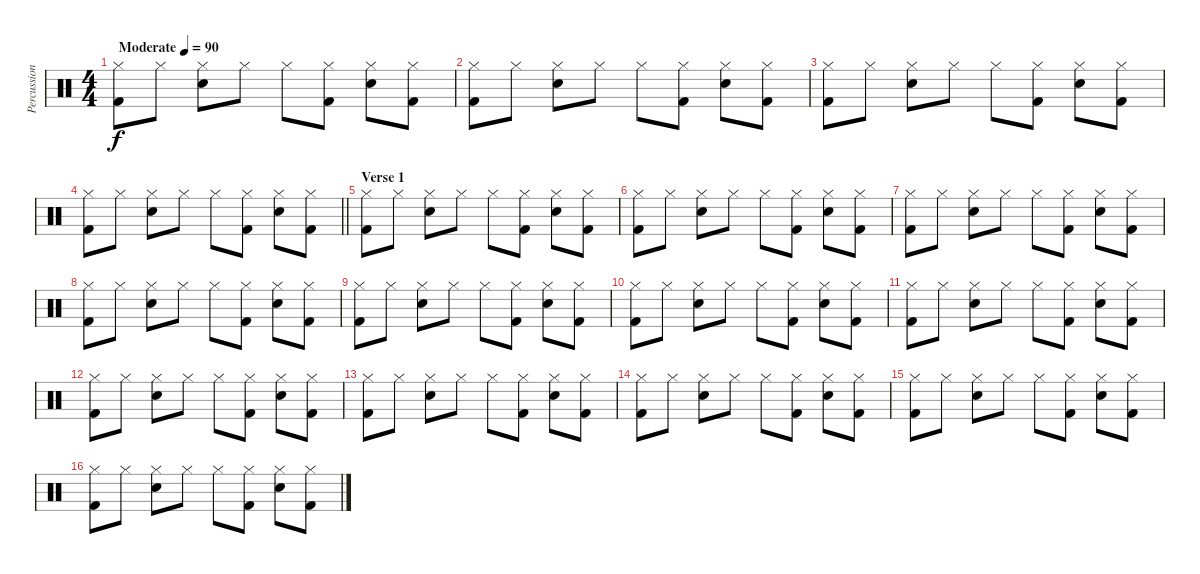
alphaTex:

\track ("Percussion" "Percussion") {instrument percussion}
\staff {score}
\articulation defaults
\ts (4 4)
\tempo (90 "Moderate")
\clef neutral
\ks c
("Hi-Hat (closed)" "Kick (hit) 2").8{dy f} "Hi-Hat (closed)".8 ("Hi-Hat (closed)" "Snare (hit) 2").8 "Hi-Hat (closed)".8 "Hi-Hat (closed)".8 ("Hi-Hat (closed)" "Kick (hit) 2").8 ("Hi-Hat (closed)" "Snare (hit) 2").8 ("Hi-Hat (closed)" "Kick (hit) 2").8 |
("Hi-Hat (closed)" "Kick (hit) 2").8 "Hi-Hat (closed)".8 ("Hi-Hat (closed)" "Snare (hit) 2").8 "Hi-Hat (closed)".8 "Hi-Hat (closed)".8 ("Hi-Hat (closed)" "Kick (hit) 2").8 ("Hi-Hat (closed)" "Snare (hit) 2").8 ("Hi-Hat (closed)" "Kick (hit) 2").8 |
("Hi-Hat (closed)" "Kick (hit) 2").8 "Hi-Hat (closed)".8 ("Hi-Hat (closed)" "Snare (hit) 2").8 "Hi-Hat (closed)".8 "Hi-Hat (closed)".8 ("Hi-Hat (closed)" "Kick (hit) 2").8 ("Hi-Hat (closed)" "Snare (hit) 2").8 ("Hi-Hat (closed)" "Kick (hit) 2").8 |
\barLineRight lightlight
("Hi-Hat (closed)" "Kick (hit) 2").8 "Hi-Hat (closed)".8 ("Hi-Hat (closed)" "Snare (hit) 2").8 "Hi-Hat (closed)".8 "Hi-Hat (closed)".8 ("Hi-Hat (closed)" "Kick (hit) 2").8 ("Hi-Hat (closed)" "Snare (hit) 2").8 ("Hi-Hat (closed)" "Kick (hit) 2").8 |
\section ("" "Verse 1")
("Hi-Hat (closed)" "Kick (hit) 2").8 "Hi-Hat (closed)".8 ("Hi-Hat (closed)" "Snare (hit) 2").8 "Hi-Hat (closed)".8 "Hi-Hat (closed)".8 ("Hi-Hat (closed)" "Kick (hit) 2").8 ("Hi-Hat (closed)" "Snare (hit) 2").8 ("Hi-Hat (closed)" "Kick (hit) 2").8 |
("Hi-Hat (closed)" "Kick (hit) 2").8 "Hi-Hat (closed)".8 ("Hi-Hat (closed)" "Snare (hit) 2").8 "Hi-Hat (closed)".8 "Hi-Hat (closed)".8 ("Hi-Hat (closed)" "Kick (hit) 2").8 ("Hi-Hat (closed)" "Snare (hit) 2").8 ("Hi-Hat (closed)" "Kick (hit) 2").8 |
("Hi-Hat (closed)" "Kick (hit) 2").8 "Hi-Hat (closed)".8 ("Hi-Hat (closed)" "Snare (hit) 2").8 "Hi-Hat (closed)".8 "Hi-Hat (closed)".8 ("Hi-Hat (closed)" "Kick (hit) 2").8 ("Hi-Hat (closed)" "Snare (hit) 2").8 ("Hi-Hat (closed)" "Kick (hit) 2").8 |
("Hi-Hat (closed)" "Kick (hit) 2").8 "Hi-Hat (closed)".8 ("Hi-Hat (closed)" "Snare (hit) 2").8 "Hi-Hat (closed)".8 "Hi-Hat (closed)".8 ("Hi-Hat (closed)" "Kick (hit) 2").8 ("Hi-Hat (closed)" "Snare (hit) 2").8 ("Hi-Hat (closed)" "Kick (hit) 2").8 |
("Hi-Hat (closed)" "Kick (hit) 2").8 "Hi-Hat (closed)".8 ("Hi-Hat (closed)" "Snare (hit) 2").8 "Hi-Hat (closed)".8 "Hi-Hat (closed)".8 ("Hi-Hat (closed)" "Kick (hit) 2").8 ("Hi-Hat (closed)" "Snare (hit) 2").8 ("Hi-Hat (closed)" "Kick (hit) 2").8 |
("Hi-Hat (closed)" "Kick (hit) 2").8 "Hi-Hat (closed)".8 ("Hi-Hat (closed)" "Snare (hit) 2").8 "Hi-Hat (closed)".8 "Hi-Hat (closed)".8 ("Hi-Hat (closed)" "Kick (hit) 2").8 ("Hi-Hat (closed)" "Snare (hit) 2").8 ("Hi-Hat (closed)" "Kick (hit) 2").8 |
("Hi-Hat (closed)" "Kick (hit) 2").8 "Hi-Hat (closed)".8 ("Hi-Hat (closed)" "Snare (hit) 2").8 "Hi-Hat (closed)".8 "Hi-Hat (closed)".8 ("Hi-Hat (closed)" "Kick (hit) 2").8 ("Hi-Hat (closed)" "Snare (hit) 2").8 ("Hi-Hat (closed)" "Kick (hit) 2").8 |
("Hi-Hat (closed)" "Kick (hit) 2").8 "Hi-Hat (closed)".8 ("Hi-Hat (closed)" "Snare (hit) 2").8 "Hi-Hat (closed)".8 "Hi-Hat (closed)".8 ("Hi-Hat (closed)" "Kick (hit) 2").8 ("Hi-Hat (closed)" "Snare (hit) 2").8 ("Hi-Hat (closed)" "Kick (hit) 2").8 |
("Hi-Hat (closed)" "Kick (hit) 2").8 "Hi-Hat (closed)".8 ("Hi-Hat (closed)" "Snare (hit) 2").8 "Hi-Hat (closed)".8 "Hi-Hat (closed)".8 ("Hi-Hat (closed)" "Kick (hit) 2").8 ("Hi-Hat (closed)" "Snare (hit) 2").8 ("Hi-Hat (closed)" "Kick (hit) 2").8 |
("Hi-Hat (closed)" "Kick (hit) 2").8 "Hi-Hat (closed)".8 ("Hi-Hat (closed)" "Snare (hit) 2").8 "Hi-Hat (closed)".8 "Hi-Hat (closed)".8 ("Hi-Hat (closed)" "Kick (hit) 2").8 ("Hi-Hat (closed)" "Snare (hit) 2").8 ("Hi-Hat (closed)" "Kick (hit) 2").8 |
("Hi-Hat (closed)" "Kick (hit) 2").8 "Hi-Hat (closed)".8 ("Hi-Hat (closed)" "Snare (hit) 2").8 "Hi-Hat (closed)".8 "Hi-Hat (closed)".8 ("Hi-Hat (closed)" "Kick (hit) 2").8 ("Hi-Hat (closed)" "Snare (hit) 2").8 ("Hi-Hat (closed)" "Kick (hit) 2").8 |
("Hi-Hat (closed)" "Kick (hit) 2").8 "Hi-Hat (closed)".8 ("Hi-Hat (closed)" "Snare (hit) 2").8 "Hi-Hat (closed)".8 "Hi-Hat (closed)".8 ("Hi-Hat (closed)" "Kick (hit) 2").8 ("Hi-Hat (closed)" "Snare (hit) 2").8 ("Hi-Hat (closed)" "Kick (hit) 2").8
